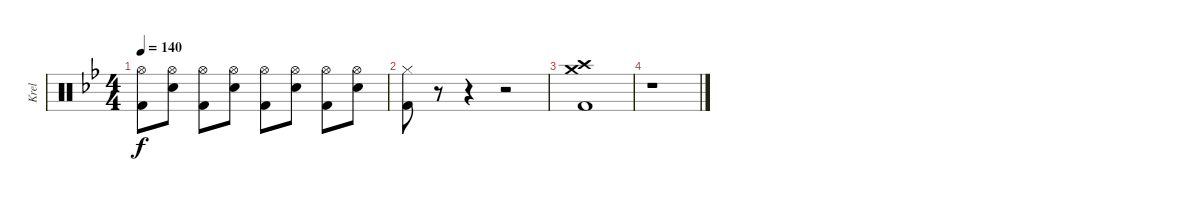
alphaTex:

\track ("Krel" "Krel") {instrument percussion}
\staff {score}
\articulation defaults
\ts (4 4)
\tempo 140
\clef neutral
\ks bb
("Hi-Hat (open)" "Kick (hit) 2").8{dy f} ("Hi-Hat (open)" "Snare (hit) 2").8 ("Hi-Hat (open)" "Kick (hit) 2").8 ("Hi-Hat (open)" "Snare (hit) 2").8 ("Hi-Hat (open)" "Kick (hit) 2").8 ("Hi-Hat (open)" "Snare (hit) 2").8 ("Hi-Hat (open)" "Kick (hit) 2").8 ("Hi-Hat (open)" "Snare (hit) 2").8 |
("Hi-Hat (closed)" "Kick (hit) 2").8 r.8 r.4 r.2 |
("Crash high (hit)" "Crash medium (hit)" "Kick (hit) 2").1 |
r.1
